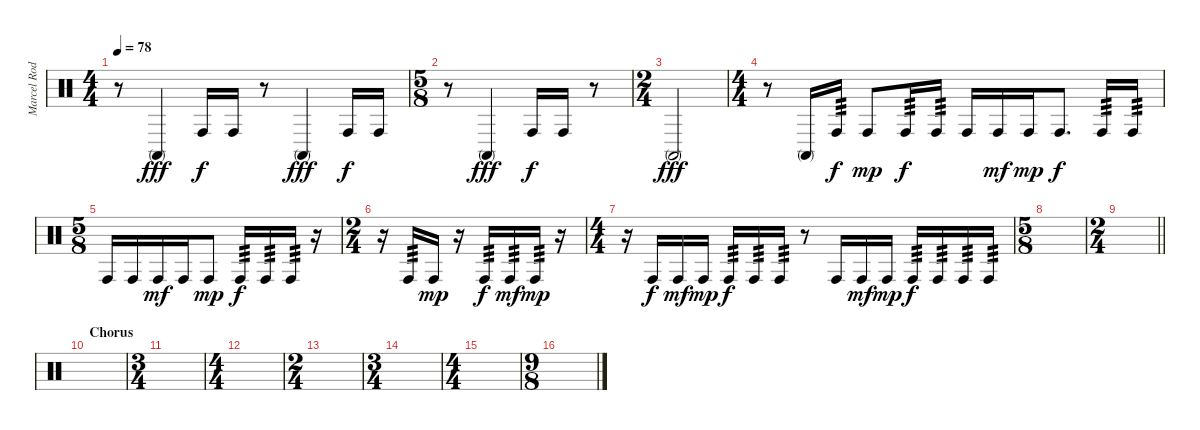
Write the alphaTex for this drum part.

\track ("Marcel Rodriguez-Lopez" "Marcel Rod") {instrument percussion}
\staff {score}
\articulation defaults
\ts (4 4)
\tempo 78
\clef neutral
\ks c
r.8{dy fff} "Conga high (mute)".4 "Conga high (hit)".16{dy f} "Conga high (hit)".16 r.8 "Conga high (mute)".4{dy fff} "Conga high (hit)".16{dy f} "Conga high (hit)".16 |
\ts (5 8)
r.8 "Conga high (mute)".4{dy fff} "Conga high (hit)".16{dy f} "Conga high (hit)".16 r.8 |
\ts (2 4)
"Conga high (mute)".2{dy fff} |
\ts (4 4)
r.8 "Conga high (mute)".16 "Conga high (hit)".16{tp 3 dy f} "Conga high (hit)".8{dy mp} "Conga high (hit)".16{tp 3 dy f} "Conga high (hit)".16{tp 3} "Conga high (hit)".16 "Conga high (hit)".16{dy mf} "Conga high (hit)".16{dy mp} "Conga high (hit)".8{d dy f} "Conga high (hit)".16{tp 3} "Conga high (hit)".16{tp 3} |
\ts (5 8)
"Conga high (hit)".16 "Conga high (hit)".16 "Conga high (hit)".16{dy mf} "Conga high (hit)".16 "Conga high (hit)".8{dy mp} "Conga high (hit)".16{tp 3 dy f} "Conga high (hit)".16{tp 3} "Conga high (hit)".16{tp 3} r.16 |
\ts (2 4)
r.16 "Conga high (hit)".16{tp 3} "Conga high (hit)".16{dy mp} r.16 "Conga high (hit)".16{tp 3 dy f} "Conga high (hit)".16{tp 3 dy mf} "Conga high (hit)".16{tp 3 dy mp} r.16 |
\ts (4 4)
r.16 "Conga high (hit)".16{dy f} "Conga high (hit)".16{dy mf} "Conga high (hit)".16{dy mp} "Conga high (hit)".16{tp 3 dy f} "Conga high (hit)".16{tp 3} "Conga high (hit)".16{tp 3} r.8 "Conga high (hit)".16 "Conga high (hit)".16{dy mf} "Conga high (hit)".16{dy mp} "Conga high (hit)".16{tp 3 dy f} "Conga high (hit)".16{tp 3} "Conga high (hit)".16{tp 3} "Conga high (hit)".16{tp 3} |
\ts (5 8)
|
\ts (2 4)
\barLineRight lightlight
|
\section ("" "Chorus")
|
\ts (3 4)
|
\ts (4 4)
|
\ts (2 4)
|
\ts (3 4)
|
\ts (4 4)
|
\ts (9 8)
